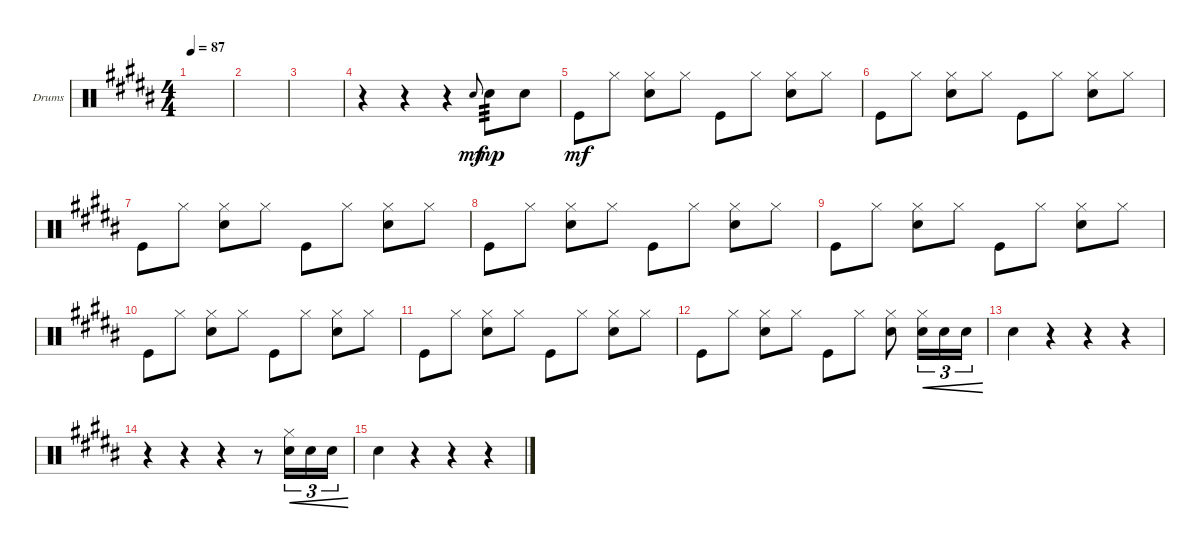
\defaultSystemsLayout 4
\bracketExtendMode groupsimilarinstruments
\firstSystemTrackNameOrientation horizontal
\otherSystemsTrackNameOrientation horizontal
\track ("Drumkit" "Drums") {instrument percussion}
\staff {score}
\articulation defaults
\ts (4 4)
\tempo 87
\clef neutral
\ks b
|
|
|
r.4 r.4 r.4 "Snare (hit) 2".8{gr onbeat dy mf} "Snare (hit) 2".8{tp 3 dy mp} "Snare (hit) 2".8 |
"Kick (hit)".8{dy mf} "Hi-Hat (closed)".8 ("Snare (hit) 2" "Hi-Hat (closed)").8 "Hi-Hat (closed)".8 "Kick (hit)".8 "Hi-Hat (closed)".8 ("Snare (hit) 2" "Hi-Hat (closed)").8 "Hi-Hat (closed)".8 |
"Kick (hit)".8 "Hi-Hat (closed)".8 ("Snare (hit) 2" "Hi-Hat (closed)").8 "Hi-Hat (closed)".8 "Kick (hit)".8 "Hi-Hat (closed)".8 ("Snare (hit) 2" "Hi-Hat (closed)").8 "Hi-Hat (closed)".8 |
"Kick (hit)".8 "Hi-Hat (closed)".8 ("Snare (hit) 2" "Hi-Hat (closed)").8 "Hi-Hat (closed)".8 "Kick (hit)".8 "Hi-Hat (closed)".8 ("Snare (hit) 2" "Hi-Hat (closed)").8 "Hi-Hat (closed)".8 |
"Kick (hit)".8 "Hi-Hat (closed)".8 ("Snare (hit) 2" "Hi-Hat (closed)").8 "Hi-Hat (closed)".8 "Kick (hit)".8 "Hi-Hat (closed)".8 ("Snare (hit) 2" "Hi-Hat (closed)").8 "Hi-Hat (closed)".8 |
"Kick (hit)".8 "Hi-Hat (closed)".8 ("Snare (hit) 2" "Hi-Hat (closed)").8 "Hi-Hat (closed)".8 "Kick (hit)".8 "Hi-Hat (closed)".8 ("Snare (hit) 2" "Hi-Hat (closed)").8 "Hi-Hat (closed)".8 |
"Kick (hit)".8 "Hi-Hat (closed)".8 ("Snare (hit) 2" "Hi-Hat (closed)").8 "Hi-Hat (closed)".8 "Kick (hit)".8 "Hi-Hat (closed)".8 ("Snare (hit) 2" "Hi-Hat (closed)").8 "Hi-Hat (closed)".8 |
"Kick (hit)".8 "Hi-Hat (closed)".8 ("Snare (hit) 2" "Hi-Hat (closed)").8 "Hi-Hat (closed)".8 "Kick (hit)".8 "Hi-Hat (closed)".8 ("Snare (hit) 2" "Hi-Hat (closed)").8 "Hi-Hat (closed)".8 |
"Kick (hit)".8 "Hi-Hat (closed)".8 ("Snare (hit) 2" "Hi-Hat (closed)").8 "Hi-Hat (closed)".8 "Kick (hit)".8 "Hi-Hat (closed)".8 ("Snare (hit) 2" "Hi-Hat (closed)").8 ("Hi-Hat (closed)" "Snare (hit) 2").16{tu (3 2) cre} "Snare (hit) 2".16{tu (3 2) cre} "Snare (hit) 2".16{tu (3 2) cre} |
"Snare (hit) 2".4 r.4 r.4 r.4 |
r.4 r.4 r.4 r.8 ("Hi-Hat (closed)" "Snare (hit) 2").16{tu (3 2) cre} "Snare (hit) 2".16{tu (3 2) cre} "Snare (hit) 2".16{tu (3 2) cre} |
"Snare (hit) 2".4 r.4 r.4 r.4
